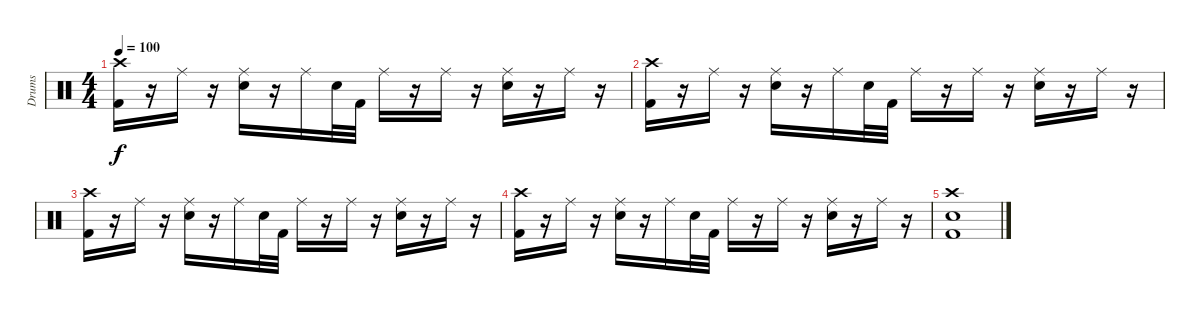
\track ("Drums" "Drums") {instrument percussion}
\staff {score}
\articulation defaults
\ts (4 4)
\tempo 100
\clef neutral
\ks c
("Crash high (hit)" "Kick (hit) 2").16{dy f} r.16 "Ride (middle)".16 r.16 ("Ride (middle)" "Snare (hit) 2").16 r.16 "Ride (middle)".16 "Snare (hit) 2".32 "Kick (hit) 2".32 "Ride (middle)".16 r.16 "Ride (middle)".16 r.16 ("Ride (middle)" "Snare (hit) 2").16 r.16 "Ride (middle)".16 r.16 |
("Crash high (hit)" "Kick (hit) 2").16 r.16 "Ride (middle)".16 r.16 ("Ride (middle)" "Snare (hit) 2").16 r.16 "Ride (middle)".16 "Snare (hit) 2".32 "Kick (hit) 2".32 "Ride (middle)".16 r.16 "Ride (middle)".16 r.16 ("Ride (middle)" "Snare (hit) 2").16 r.16 "Ride (middle)".16 r.16 |
("Crash high (hit)" "Kick (hit) 2").16 r.16 "Ride (middle)".16 r.16 ("Ride (middle)" "Snare (hit) 2").16 r.16 "Ride (middle)".16 "Snare (hit) 2".32 "Kick (hit) 2".32 "Ride (middle)".16 r.16 "Ride (middle)".16 r.16 ("Ride (middle)" "Snare (hit) 2").16 r.16 "Ride (middle)".16 r.16 |
("Crash high (hit)" "Kick (hit) 2").16 r.16 "Ride (middle)".16 r.16 ("Ride (middle)" "Snare (hit) 2").16 r.16 "Ride (middle)".16 "Snare (hit) 2".32 "Kick (hit) 2".32 "Ride (middle)".16 r.16 "Ride (middle)".16 r.16 ("Ride (middle)" "Snare (hit) 2").16 r.16 "Ride (middle)".16 r.16 |
("Crash high (hit)" "Snare (hit) 2" "Kick (hit) 2").1{volume 0}
